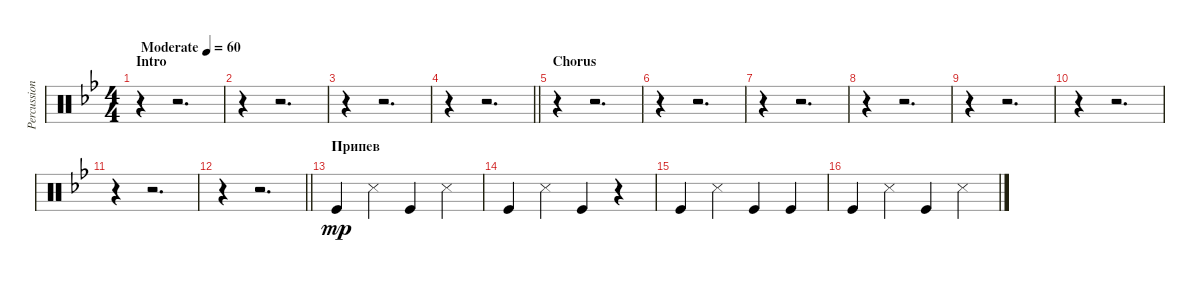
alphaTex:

\track ("Percussion" "Percussion") {instrument percussion}
\staff {score}
\articulation defaults
\ts (4 4)
\section ("" "Intro")
\tempo (60 "Moderate")
\clef neutral
\ks bb
r.4{dy mp} r.2{d} |
r.4 r.2{d} |
r.4 r.2{d} |
\barLineRight lightlight
r.4 r.2{d} |
\section ("" "Chorus")
r.4 r.2{d} |
r.4 r.2{d} |
r.4 r.2{d} |
r.4 r.2{d} |
r.4 r.2{d} |
r.4 r.2{d} |
r.4 r.2{d} |
\barLineRight lightlight
r.4 r.2{d} |
\section ("" "Припев")
"Kick (hit)".4 "Snare (side stick) 3".4 "Kick (hit)".4 "Snare (side stick) 3".4 |
"Kick (hit)".4 "Snare (side stick) 3".4 "Kick (hit)".4 r.4 |
"Kick (hit)".4 "Snare (side stick) 3".4 "Kick (hit)".4 "Kick (hit)".4 |
"Kick (hit)".4 "Snare (side stick) 3".4 "Kick (hit)".4 "Snare (side stick) 3".4
